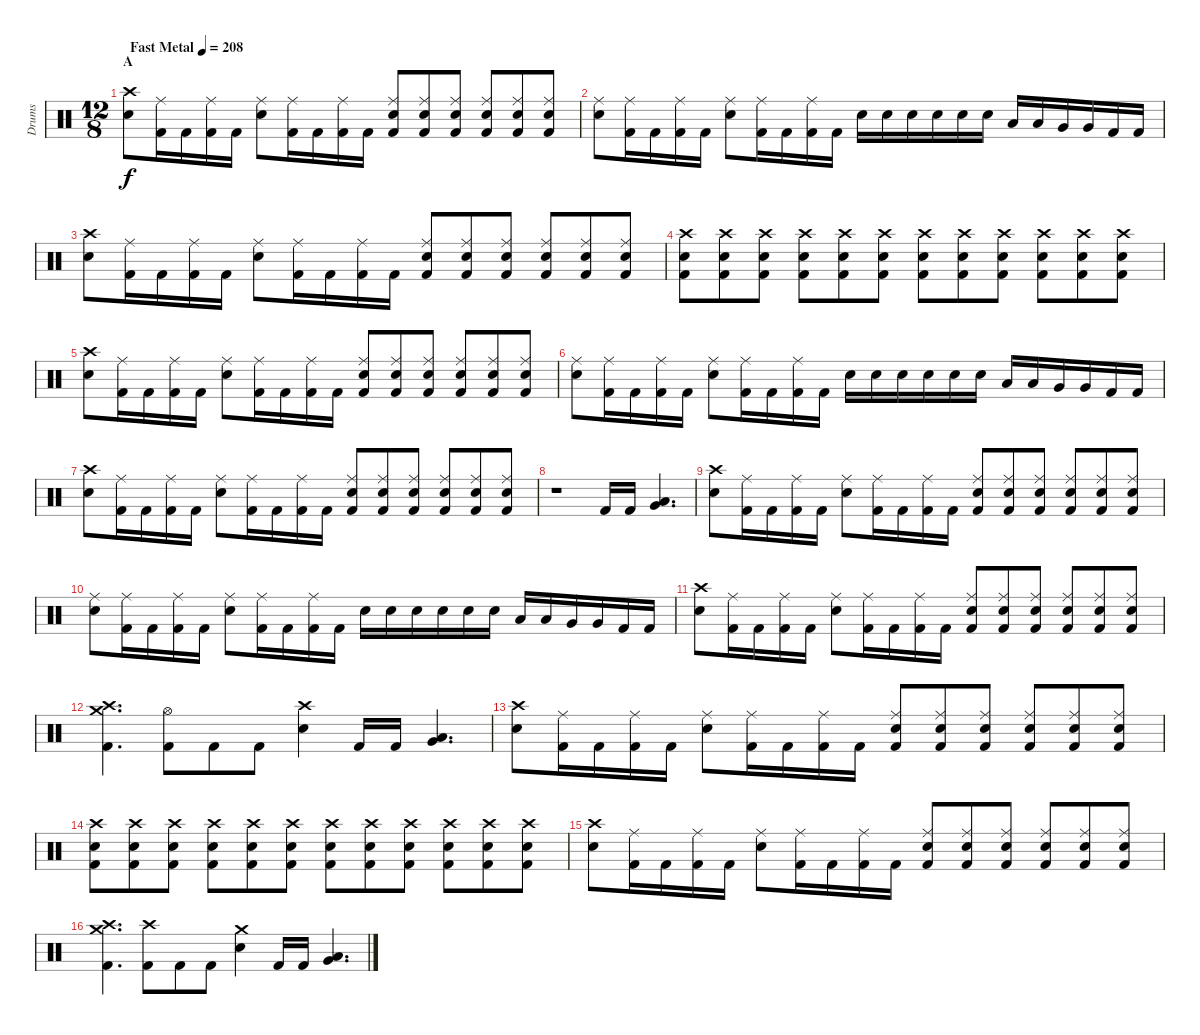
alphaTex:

\track ("Drums" "Drums") {instrument percussion}
\staff {score}
\articulation defaults
\ts (12 8)
\section ("" "A")
\tempo (208 "Fast Metal")
\clef neutral
\ks c
("Crash high (hit)" "Electric Snare (hit)").8{dy f} ("Ride (middle)" "Kick (hit) 2").16 "Kick (hit) 2".16 ("Ride (middle)" "Kick (hit) 2").16 "Kick (hit) 2".16 ("Ride (middle)" "Electric Snare (hit)").8 ("Ride (middle)" "Kick (hit) 2").16 "Kick (hit) 2".16 ("Ride (middle)" "Kick (hit) 2").16 "Kick (hit) 2".16 ("Ride (middle)" "Electric Snare (hit)" "Kick (hit) 2").8 ("Ride (middle)" "Electric Snare (hit)" "Kick (hit) 2").8 ("Ride (middle)" "Electric Snare (hit)" "Kick (hit) 2").8 ("Ride (middle)" "Electric Snare (hit)" "Kick (hit) 2").8 ("Ride (middle)" "Electric Snare (hit)" "Kick (hit) 2").8 ("Ride (middle)" "Electric Snare (hit)" "Kick (hit) 2").8 |
("Ride (middle)" "Electric Snare (hit)").8 ("Ride (middle)" "Kick (hit) 2").16 "Kick (hit) 2".16 ("Ride (middle)" "Kick (hit) 2").16 "Kick (hit) 2".16 ("Ride (middle)" "Electric Snare (hit)").8 ("Ride (middle)" "Kick (hit) 2").16 "Kick (hit) 2".16 ("Ride (middle)" "Kick (hit) 2").16 "Kick (hit) 2".16 "Electric Snare (hit)".16 "Electric Snare (hit)".16 "Electric Snare (hit)".16 "Electric Snare (hit)".16 "Electric Snare (hit)".16 "Electric Snare (hit)".16 "Low Tom (hit)".16 "Low Tom (hit)".16 "Very Low Tom (hit)".16 "Very Low Tom (hit)".16 "Kick (hit) 2".16 "Kick (hit) 2".16 |
("Crash high (hit)" "Electric Snare (hit)").8 ("Ride (middle)" "Kick (hit) 2").16 "Kick (hit) 2".16 ("Ride (middle)" "Kick (hit) 2").16 "Kick (hit) 2".16 ("Ride (middle)" "Electric Snare (hit)").8 ("Ride (middle)" "Kick (hit) 2").16 "Kick (hit) 2".16 ("Ride (middle)" "Kick (hit) 2").16 "Kick (hit) 2".16 ("Ride (middle)" "Electric Snare (hit)" "Kick (hit) 2").8 ("Ride (middle)" "Electric Snare (hit)" "Kick (hit) 2").8 ("Ride (middle)" "Electric Snare (hit)" "Kick (hit) 2").8 ("Ride (middle)" "Electric Snare (hit)" "Kick (hit) 2").8 ("Ride (middle)" "Electric Snare (hit)" "Kick (hit) 2").8 ("Ride (middle)" "Electric Snare (hit)" "Kick (hit) 2").8 |
("Crash high (hit)" "Electric Snare (hit)" "Kick (hit) 2").8 ("Crash high (hit)" "Electric Snare (hit)" "Kick (hit) 2").8 ("Crash high (hit)" "Electric Snare (hit)" "Kick (hit) 2").8 ("Crash high (hit)" "Electric Snare (hit)" "Kick (hit) 2").8 ("Crash high (hit)" "Electric Snare (hit)" "Kick (hit) 2").8 ("Crash high (hit)" "Electric Snare (hit)" "Kick (hit) 2").8 ("Crash high (hit)" "Electric Snare (hit)" "Kick (hit) 2").8 ("Crash high (hit)" "Electric Snare (hit)" "Kick (hit) 2").8 ("Crash high (hit)" "Electric Snare (hit)" "Kick (hit) 2").8 ("Crash high (hit)" "Electric Snare (hit)" "Kick (hit) 2").8 ("Crash high (hit)" "Electric Snare (hit)" "Kick (hit) 2").8 ("Crash high (hit)" "Electric Snare (hit)" "Kick (hit) 2").8 |
("Crash high (hit)" "Electric Snare (hit)").8 ("Ride (middle)" "Kick (hit) 2").16 "Kick (hit) 2".16 ("Ride (middle)" "Kick (hit) 2").16 "Kick (hit) 2".16 ("Ride (middle)" "Electric Snare (hit)").8 ("Ride (middle)" "Kick (hit) 2").16 "Kick (hit) 2".16 ("Ride (middle)" "Kick (hit) 2").16 "Kick (hit) 2".16 ("Ride (middle)" "Electric Snare (hit)" "Kick (hit) 2").8 ("Ride (middle)" "Electric Snare (hit)" "Kick (hit) 2").8 ("Ride (middle)" "Electric Snare (hit)" "Kick (hit) 2").8 ("Ride (middle)" "Electric Snare (hit)" "Kick (hit) 2").8 ("Ride (middle)" "Electric Snare (hit)" "Kick (hit) 2").8 ("Ride (middle)" "Electric Snare (hit)" "Kick (hit) 2").8 |
("Ride (middle)" "Electric Snare (hit)").8 ("Ride (middle)" "Kick (hit) 2").16 "Kick (hit) 2".16 ("Ride (middle)" "Kick (hit) 2").16 "Kick (hit) 2".16 ("Ride (middle)" "Electric Snare (hit)").8 ("Ride (middle)" "Kick (hit) 2").16 "Kick (hit) 2".16 ("Ride (middle)" "Kick (hit) 2").16 "Kick (hit) 2".16 "Electric Snare (hit)".16 "Electric Snare (hit)".16 "Electric Snare (hit)".16 "Electric Snare (hit)".16 "Electric Snare (hit)".16 "Electric Snare (hit)".16 "Low Tom (hit)".16 "Low Tom (hit)".16 "Very Low Tom (hit)".16 "Very Low Tom (hit)".16 "Kick (hit) 2".16 "Kick (hit) 2".16 |
("Crash high (hit)" "Electric Snare (hit)").8 ("Ride (middle)" "Kick (hit) 2").16 "Kick (hit) 2".16 ("Ride (middle)" "Kick (hit) 2").16 "Kick (hit) 2".16 ("Ride (middle)" "Electric Snare (hit)").8 ("Ride (middle)" "Kick (hit) 2").16 "Kick (hit) 2".16 ("Ride (middle)" "Kick (hit) 2").16 "Kick (hit) 2".16 ("Ride (middle)" "Electric Snare (hit)" "Kick (hit) 2").8 ("Ride (middle)" "Electric Snare (hit)" "Kick (hit) 2").8 ("Ride (middle)" "Electric Snare (hit)" "Kick (hit) 2").8 ("Ride (middle)" "Electric Snare (hit)" "Kick (hit) 2").8 ("Ride (middle)" "Electric Snare (hit)" "Kick (hit) 2").8 ("Ride (middle)" "Electric Snare (hit)" "Kick (hit) 2").8 |
r.1 "Kick (hit) 2".16 "Kick (hit) 2".16 ("Very Low Tom (hit)" "Low Floor Tom (hit)").4{d} |
("Crash high (hit)" "Electric Snare (hit)").8 ("Ride (middle)" "Kick (hit) 2").16 "Kick (hit) 2".16 ("Ride (middle)" "Kick (hit) 2").16 "Kick (hit) 2".16 ("Ride (middle)" "Electric Snare (hit)").8 ("Ride (middle)" "Kick (hit) 2").16 "Kick (hit) 2".16 ("Ride (middle)" "Kick (hit) 2").16 "Kick (hit) 2".16 ("Ride (middle)" "Electric Snare (hit)" "Kick (hit) 2").8 ("Ride (middle)" "Electric Snare (hit)" "Kick (hit) 2").8 ("Ride (middle)" "Electric Snare (hit)" "Kick (hit) 2").8 ("Ride (middle)" "Electric Snare (hit)" "Kick (hit) 2").8 ("Ride (middle)" "Electric Snare (hit)" "Kick (hit) 2").8 ("Ride (middle)" "Electric Snare (hit)" "Kick (hit) 2").8 |
("Ride (middle)" "Electric Snare (hit)").8 ("Ride (middle)" "Kick (hit) 2").16 "Kick (hit) 2".16 ("Ride (middle)" "Kick (hit) 2").16 "Kick (hit) 2".16 ("Ride (middle)" "Electric Snare (hit)").8 ("Ride (middle)" "Kick (hit) 2").16 "Kick (hit) 2".16 ("Ride (middle)" "Kick (hit) 2").16 "Kick (hit) 2".16 "Electric Snare (hit)".16 "Electric Snare (hit)".16 "Electric Snare (hit)".16 "Electric Snare (hit)".16 "Electric Snare (hit)".16 "Electric Snare (hit)".16 "Low Tom (hit)".16 "Low Tom (hit)".16 "Very Low Tom (hit)".16 "Very Low Tom (hit)".16 "Kick (hit) 2".16 "Kick (hit) 2".16 |
("Crash high (hit)" "Electric Snare (hit)").8 ("Ride (middle)" "Kick (hit) 2").16 "Kick (hit) 2".16 ("Ride (middle)" "Kick (hit) 2").16 "Kick (hit) 2".16 ("Ride (middle)" "Electric Snare (hit)").8 ("Ride (middle)" "Kick (hit) 2").16 "Kick (hit) 2".16 ("Ride (middle)" "Kick (hit) 2").16 "Kick (hit) 2".16 ("Ride (middle)" "Electric Snare (hit)" "Kick (hit) 2").8 ("Ride (middle)" "Electric Snare (hit)" "Kick (hit) 2").8 ("Ride (middle)" "Electric Snare (hit)" "Kick (hit) 2").8 ("Ride (middle)" "Electric Snare (hit)" "Kick (hit) 2").8 ("Ride (middle)" "Electric Snare (hit)" "Kick (hit) 2").8 ("Ride (middle)" "Electric Snare (hit)" "Kick (hit) 2").8 |
("Crash medium (hit)" "Crash high (hit)" "Kick (hit) 2").4{d} ("Hi-Hat (open)" "Kick (hit) 2").8 "Kick (hit) 2".8 "Kick (hit) 2".8 ("Crash high (hit)" "Electric Snare (hit)").4 "Kick (hit) 2".16 "Kick (hit) 2".16 ("Low Tom (hit)" "Very Low Tom (hit)").4{d} |
("Crash high (hit)" "Electric Snare (hit)").8 ("Ride (middle)" "Kick (hit) 2").16 "Kick (hit) 2".16 ("Ride (middle)" "Kick (hit) 2").16 "Kick (hit) 2".16 ("Ride (middle)" "Electric Snare (hit)").8 ("Ride (middle)" "Kick (hit) 2").16 "Kick (hit) 2".16 ("Ride (middle)" "Kick (hit) 2").16 "Kick (hit) 2".16 ("Ride (middle)" "Electric Snare (hit)" "Kick (hit) 2").8 ("Ride (middle)" "Electric Snare (hit)" "Kick (hit) 2").8 ("Ride (middle)" "Electric Snare (hit)" "Kick (hit) 2").8 ("Ride (middle)" "Electric Snare (hit)" "Kick (hit) 2").8 ("Ride (middle)" "Electric Snare (hit)" "Kick (hit) 2").8 ("Ride (middle)" "Electric Snare (hit)" "Kick (hit) 2").8 |
("Crash high (hit)" "Electric Snare (hit)" "Kick (hit) 2").8 ("Crash high (hit)" "Electric Snare (hit)" "Kick (hit) 2").8 ("Crash high (hit)" "Electric Snare (hit)" "Kick (hit) 2").8 ("Crash high (hit)" "Electric Snare (hit)" "Kick (hit) 2").8 ("Crash high (hit)" "Electric Snare (hit)" "Kick (hit) 2").8 ("Crash high (hit)" "Electric Snare (hit)" "Kick (hit) 2").8 ("Crash high (hit)" "Electric Snare (hit)" "Kick (hit) 2").8 ("Crash high (hit)" "Electric Snare (hit)" "Kick (hit) 2").8 ("Crash high (hit)" "Electric Snare (hit)" "Kick (hit) 2").8 ("Crash high (hit)" "Electric Snare (hit)" "Kick (hit) 2").8 ("Crash high (hit)" "Electric Snare (hit)" "Kick (hit) 2").8 ("Crash high (hit)" "Electric Snare (hit)" "Kick (hit) 2").8 |
("Crash high (hit)" "Electric Snare (hit)").8 ("Ride (middle)" "Kick (hit) 2").16 "Kick (hit) 2".16 ("Ride (middle)" "Kick (hit) 2").16 "Kick (hit) 2".16 ("Ride (middle)" "Electric Snare (hit)").8 ("Ride (middle)" "Kick (hit) 2").16 "Kick (hit) 2".16 ("Ride (middle)" "Kick (hit) 2").16 "Kick (hit) 2".16 ("Ride (middle)" "Electric Snare (hit)" "Kick (hit) 2").8 ("Ride (middle)" "Electric Snare (hit)" "Kick (hit) 2").8 ("Ride (middle)" "Electric Snare (hit)" "Kick (hit) 2").8 ("Ride (middle)" "Electric Snare (hit)" "Kick (hit) 2").8 ("Ride (middle)" "Electric Snare (hit)" "Kick (hit) 2").8 ("Ride (middle)" "Electric Snare (hit)" "Kick (hit) 2").8 |
("Crash medium (hit)" "Crash high (hit)" "Kick (hit) 2").4{d} ("Crash high (hit)" "Kick (hit) 2").8 "Kick (hit) 2".8 "Kick (hit) 2".8 ("Crash medium (hit)" "Electric Snare (hit)").4 "Kick (hit) 2".16 "Kick (hit) 2".16 ("Very Low Tom (hit)" "Low Floor Tom (hit)").4{d}
